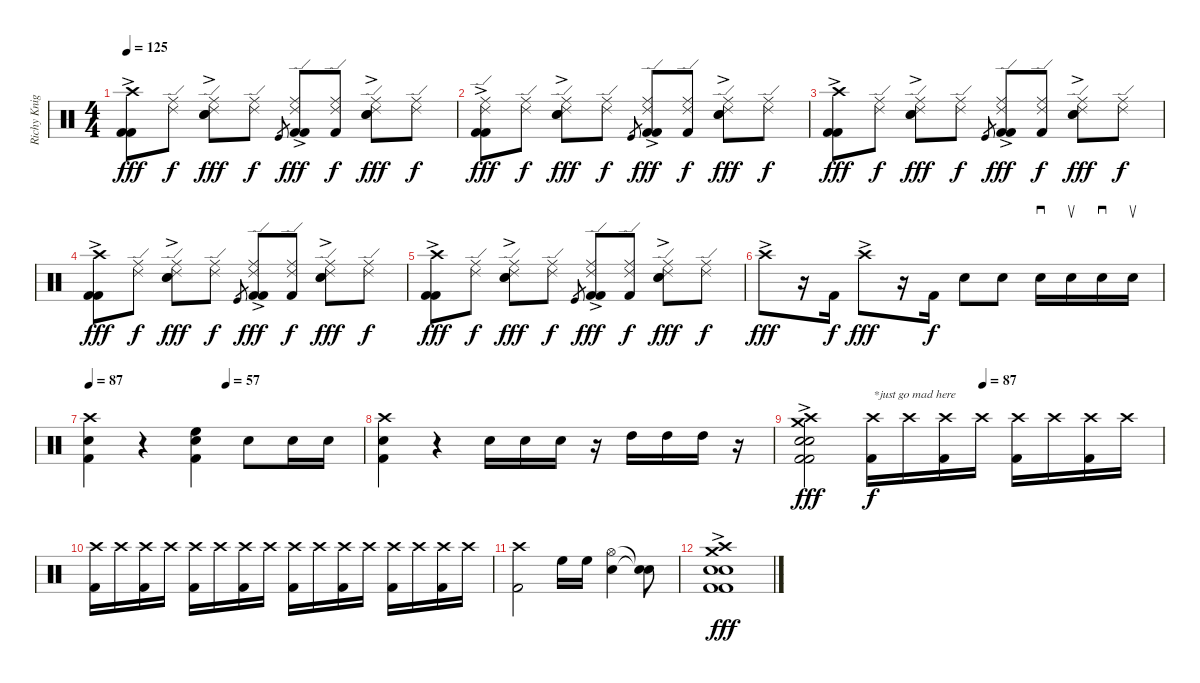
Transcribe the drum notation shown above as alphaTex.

\track ("Richy Knight" "Richy Knig") {instrument percussion}
\staff {score}
\articulation defaults
\ts (4 4)
\tempo 125
\clef neutral
\ks c
("Crash high (hit)"{ac} "Kick (hit) 2"{ac} "Kick (hit) 2"{ac}).8{dy fff} ("Ride (middle)" "Ride (edge) 2").8{dy f} ("Ride (middle)" "Ride (edge) 2" "Electric Snare (hit)"{ac} "Electric Snare (hit)"{ac}).8{dy fff} ("Ride (middle)" "Ride (edge) 2").8{dy f} "Kick (hit)".8{gr} ("Ride (middle)" "Ride (edge) 2" "Kick (hit) 2"{ac} "Kick (hit) 2"{ac}).8{dy fff} ("Ride (middle)" "Ride (edge) 2" "Kick (hit) 2").8{dy f} ("Ride (middle)" "Ride (edge) 2" "Electric Snare (hit)"{ac} "Electric Snare (hit)"{ac}).8{dy fff} ("Ride (middle)" "Ride (edge) 2").8{dy f} |
("Ride (middle)"{ac} "Ride (edge) 2"{ac} "Kick (hit) 2"{ac} "Kick (hit) 2"{ac}).8{dy fff} ("Ride (middle)" "Ride (edge) 2").8{dy f} ("Ride (middle)" "Ride (edge) 2" "Electric Snare (hit)"{ac} "Electric Snare (hit)"{ac}).8{dy fff} ("Ride (middle)" "Ride (edge) 2").8{dy f} "Kick (hit)".8{gr} ("Ride (middle)" "Ride (edge) 2" "Kick (hit) 2"{ac} "Kick (hit) 2"{ac}).8{dy fff} ("Ride (middle)" "Ride (edge) 2" "Kick (hit) 2").8{dy f} ("Ride (middle)" "Ride (edge) 2" "Electric Snare (hit)"{ac} "Electric Snare (hit)"{ac}).8{dy fff} ("Ride (middle)" "Ride (edge) 2").8{dy f} |
("Crash high (hit)"{ac} "Kick (hit) 2"{ac} "Kick (hit) 2"{ac}).8{dy fff} ("Ride (middle)" "Ride (edge) 2").8{dy f} ("Ride (middle)" "Ride (edge) 2" "Electric Snare (hit)"{ac} "Electric Snare (hit)"{ac}).8{dy fff} ("Ride (middle)" "Ride (edge) 2").8{dy f} "Kick (hit)".8{gr} ("Ride (middle)" "Ride (edge) 2" "Kick (hit) 2"{ac} "Kick (hit) 2"{ac}).8{dy fff} ("Ride (middle)" "Ride (edge) 2" "Kick (hit) 2").8{dy f} ("Ride (middle)" "Ride (edge) 2" "Electric Snare (hit)"{ac} "Electric Snare (hit)"{ac}).8{dy fff} ("Ride (middle)" "Ride (edge) 2").8{dy f} |
("Crash high (hit)"{ac} "Kick (hit) 2"{ac} "Kick (hit) 2"{ac}).8{dy fff} ("Ride (middle)" "Ride (edge) 2").8{dy f} ("Ride (middle)" "Ride (edge) 2" "Electric Snare (hit)"{ac} "Electric Snare (hit)"{ac}).8{dy fff} ("Ride (middle)" "Ride (edge) 2").8{dy f} "Kick (hit)".8{gr} ("Ride (middle)" "Ride (edge) 2" "Kick (hit) 2"{ac} "Kick (hit) 2"{ac}).8{dy fff} ("Ride (middle)" "Ride (edge) 2" "Kick (hit) 2").8{dy f} ("Ride (middle)" "Ride (edge) 2" "Electric Snare (hit)"{ac} "Electric Snare (hit)"{ac}).8{dy fff} ("Ride (middle)" "Ride (edge) 2").8{dy f} |
("Crash high (hit)"{ac} "Kick (hit) 2"{ac} "Kick (hit) 2"{ac}).8{dy fff} ("Ride (middle)" "Ride (edge) 2").8{dy f} ("Ride (middle)" "Ride (edge) 2" "Electric Snare (hit)"{ac} "Electric Snare (hit)"{ac}).8{dy fff} ("Ride (middle)" "Ride (edge) 2").8{dy f} "Kick (hit)".8{gr} ("Ride (middle)" "Ride (edge) 2" "Kick (hit) 2"{ac} "Kick (hit) 2"{ac}).8{dy fff} ("Ride (middle)" "Ride (edge) 2" "Kick (hit) 2").8{dy f} ("Ride (middle)" "Ride (edge) 2" "Electric Snare (hit)"{ac} "Electric Snare (hit)"{ac}).8{dy fff} ("Ride (middle)" "Ride (edge) 2").8{dy f} |
"Crash high (hit)"{ac}.8{dy fff} r.16 "Kick (hit) 2".16{dy f} "Crash high (hit)"{ac}.8{dy fff} r.16 "Kick (hit) 2".16{dy f} "Electric Snare (hit)".8 "Electric Snare (hit)".8 "Electric Snare (hit)".16{sd} "Electric Snare (hit)".16{su} "Electric Snare (hit)".16{sd} "Electric Snare (hit)".16{su} |
\tempo 87
\tempo (57 0.5)
("Crash high (hit)" "Electric Snare (hit)" "Kick (hit) 2").4 r.4 ("Electric Snare (hit)" "High Floor Tom (hit)" "Kick (hit) 2").4 "Electric Snare (hit)".8 "Electric Snare (hit)".16 "Electric Snare (hit)".16 |
("Crash high (hit)" "Electric Snare (hit)" "Kick (hit) 2").4 r.4 "Electric Snare (hit)".16 "Electric Snare (hit)".16 "Electric Snare (hit)".16 r.16 "High Tom (hit)".16 "High Tom (hit)".16 "High Tom (hit)".16 r.16 |
\tempo (87 0.5)
("Crash high (hit)"{ac} "Crash medium (hit)"{ac} "Electric Snare (hit)"{ac} "Electric Snare (hit)"{ac} "Kick (hit) 2"{ac} "Kick (hit) 2"{ac}).2{bd 30 dy fff} ("Crash high (hit)" "Kick (hit) 2").16{txt "*just go mad here" dy f} "Crash high (hit)".16 ("Crash high (hit)" "Kick (hit) 2").16 "Crash high (hit)".16 ("Crash high (hit)" "Kick (hit) 2").16 "Crash high (hit)".16 ("Crash high (hit)" "Kick (hit) 2").16 "Crash high (hit)".16 |
("Crash high (hit)" "Kick (hit) 2").16 "Crash high (hit)".16 ("Crash high (hit)" "Kick (hit) 2").16 "Crash high (hit)".16 ("Crash high (hit)" "Kick (hit) 2").16 "Crash high (hit)".16 ("Crash high (hit)" "Kick (hit) 2").16 "Crash high (hit)".16 ("Crash high (hit)" "Kick (hit) 2").16 "Crash high (hit)".16 ("Crash high (hit)" "Kick (hit) 2").16 "Crash high (hit)".16 ("Crash high (hit)" "Kick (hit) 2").16 "Crash high (hit)".16 ("Crash high (hit)" "Kick (hit) 2").16 "Crash high (hit)".16 |
("Crash high (hit)" "Kick (hit) 2").2 "High Floor Tom (hit)".16 "High Floor Tom (hit)".16 ("Hi-Hat (open)" "Electric Snare (hit)").4 ("Snare (hit)"{t} "Snare (hit)"{t}).8 |
("Crash high (hit)"{ac} "Crash medium (hit)"{ac} "Electric Snare (hit)"{ac} "Electric Snare (hit)"{ac} "Kick (hit) 2"{ac} "Kick (hit) 2"{ac}).1{bd 60 dy fff}
